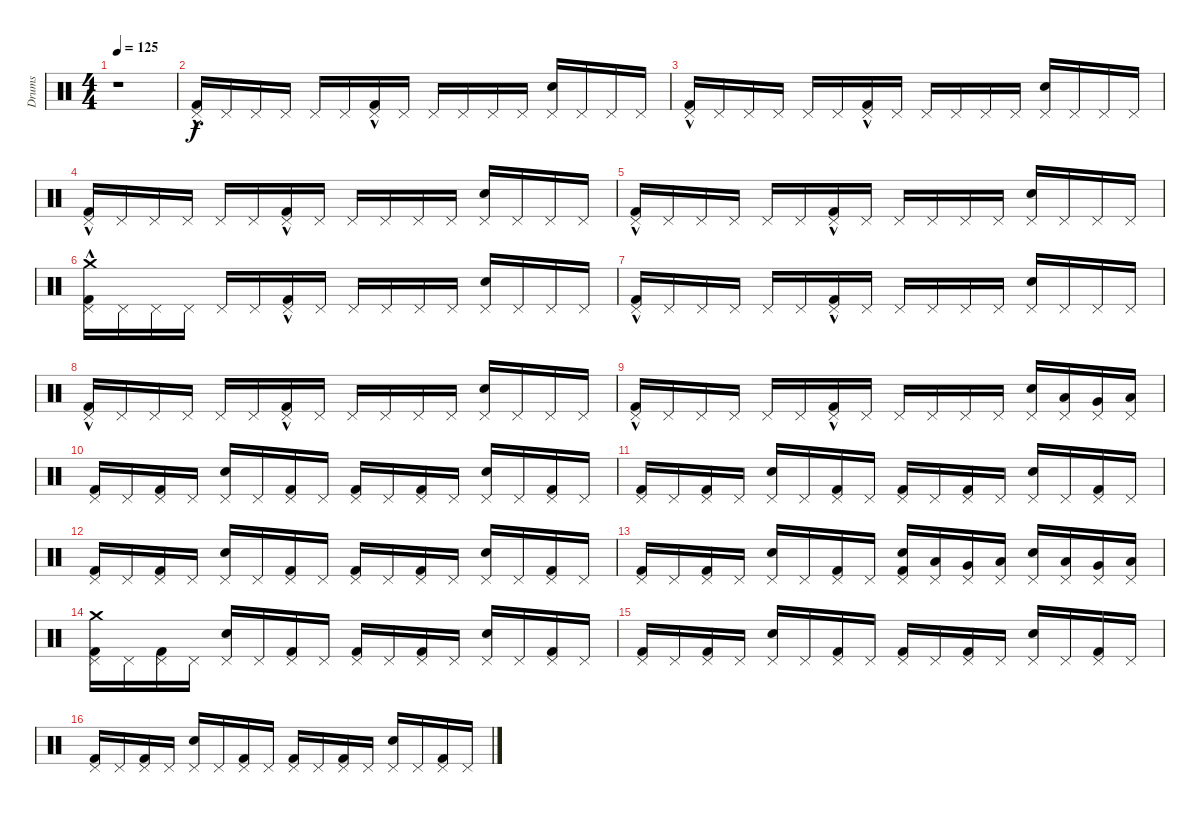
\track ("Drums" "Drums") {instrument percussion}
\staff {score}
\articulation defaults
\ts (4 4)
\tempo 125
\clef neutral
\ks c
r.1{dy f} |
("Pedal Hi-Hat (hit)" "Kick (hit) 2"{hac}).16 "Pedal Hi-Hat (hit)".16 "Pedal Hi-Hat (hit)".16 "Pedal Hi-Hat (hit)".16 "Pedal Hi-Hat (hit)".16 "Pedal Hi-Hat (hit)".16 ("Pedal Hi-Hat (hit)" "Kick (hit) 2"{hac}).16 "Pedal Hi-Hat (hit)".16 "Pedal Hi-Hat (hit)".16 "Pedal Hi-Hat (hit)".16 "Pedal Hi-Hat (hit)".16 "Pedal Hi-Hat (hit)".16 ("Pedal Hi-Hat (hit)" "Snare (hit) 2").16 "Pedal Hi-Hat (hit)".16 "Pedal Hi-Hat (hit)".16 "Pedal Hi-Hat (hit)".16 |
("Pedal Hi-Hat (hit)" "Kick (hit) 2"{hac}).16 "Pedal Hi-Hat (hit)".16 "Pedal Hi-Hat (hit)".16 "Pedal Hi-Hat (hit)".16 "Pedal Hi-Hat (hit)".16 "Pedal Hi-Hat (hit)".16 ("Pedal Hi-Hat (hit)" "Kick (hit) 2"{hac}).16 "Pedal Hi-Hat (hit)".16 "Pedal Hi-Hat (hit)".16 "Pedal Hi-Hat (hit)".16 "Pedal Hi-Hat (hit)".16 "Pedal Hi-Hat (hit)".16 ("Pedal Hi-Hat (hit)" "Snare (hit) 2").16 "Pedal Hi-Hat (hit)".16 "Pedal Hi-Hat (hit)".16 "Pedal Hi-Hat (hit)".16 |
("Pedal Hi-Hat (hit)" "Kick (hit) 2"{hac}).16 "Pedal Hi-Hat (hit)".16 "Pedal Hi-Hat (hit)".16 "Pedal Hi-Hat (hit)".16 "Pedal Hi-Hat (hit)".16 "Pedal Hi-Hat (hit)".16 ("Pedal Hi-Hat (hit)" "Kick (hit) 2"{hac}).16 "Pedal Hi-Hat (hit)".16 "Pedal Hi-Hat (hit)".16 "Pedal Hi-Hat (hit)".16 "Pedal Hi-Hat (hit)".16 "Pedal Hi-Hat (hit)".16 ("Pedal Hi-Hat (hit)" "Snare (hit) 2").16 "Pedal Hi-Hat (hit)".16 "Pedal Hi-Hat (hit)".16 "Pedal Hi-Hat (hit)".16 |
("Pedal Hi-Hat (hit)" "Kick (hit) 2"{hac}).16 "Pedal Hi-Hat (hit)".16 "Pedal Hi-Hat (hit)".16 "Pedal Hi-Hat (hit)".16 "Pedal Hi-Hat (hit)".16 "Pedal Hi-Hat (hit)".16 ("Pedal Hi-Hat (hit)" "Kick (hit) 2"{hac}).16 "Pedal Hi-Hat (hit)".16 "Pedal Hi-Hat (hit)".16 "Pedal Hi-Hat (hit)".16 "Pedal Hi-Hat (hit)".16 "Pedal Hi-Hat (hit)".16 ("Pedal Hi-Hat (hit)" "Snare (hit) 2").16 "Pedal Hi-Hat (hit)".16 "Pedal Hi-Hat (hit)".16 "Pedal Hi-Hat (hit)".16 |
("Crash medium (hit)"{hac} "Pedal Hi-Hat (hit)" "Kick (hit) 2"{hac}).16 "Pedal Hi-Hat (hit)".16 "Pedal Hi-Hat (hit)".16 "Pedal Hi-Hat (hit)".16 "Pedal Hi-Hat (hit)".16 "Pedal Hi-Hat (hit)".16 ("Pedal Hi-Hat (hit)" "Kick (hit) 2"{hac}).16 "Pedal Hi-Hat (hit)".16 "Pedal Hi-Hat (hit)".16 "Pedal Hi-Hat (hit)".16 "Pedal Hi-Hat (hit)".16 "Pedal Hi-Hat (hit)".16 ("Pedal Hi-Hat (hit)" "Snare (hit) 2").16 "Pedal Hi-Hat (hit)".16 "Pedal Hi-Hat (hit)".16 "Pedal Hi-Hat (hit)".16 |
("Pedal Hi-Hat (hit)" "Kick (hit) 2"{hac}).16 "Pedal Hi-Hat (hit)".16 "Pedal Hi-Hat (hit)".16 "Pedal Hi-Hat (hit)".16 "Pedal Hi-Hat (hit)".16 "Pedal Hi-Hat (hit)".16 ("Pedal Hi-Hat (hit)" "Kick (hit) 2"{hac}).16 "Pedal Hi-Hat (hit)".16 "Pedal Hi-Hat (hit)".16 "Pedal Hi-Hat (hit)".16 "Pedal Hi-Hat (hit)".16 "Pedal Hi-Hat (hit)".16 ("Pedal Hi-Hat (hit)" "Snare (hit) 2").16 "Pedal Hi-Hat (hit)".16 "Pedal Hi-Hat (hit)".16 "Pedal Hi-Hat (hit)".16 |
("Pedal Hi-Hat (hit)" "Kick (hit) 2"{hac}).16 "Pedal Hi-Hat (hit)".16 "Pedal Hi-Hat (hit)".16 "Pedal Hi-Hat (hit)".16 "Pedal Hi-Hat (hit)".16 "Pedal Hi-Hat (hit)".16 ("Pedal Hi-Hat (hit)" "Kick (hit) 2"{hac}).16 "Pedal Hi-Hat (hit)".16 "Pedal Hi-Hat (hit)".16 "Pedal Hi-Hat (hit)".16 "Pedal Hi-Hat (hit)".16 "Pedal Hi-Hat (hit)".16 ("Pedal Hi-Hat (hit)" "Snare (hit) 2").16 "Pedal Hi-Hat (hit)".16 "Pedal Hi-Hat (hit)".16 "Pedal Hi-Hat (hit)".16 |
("Pedal Hi-Hat (hit)" "Kick (hit) 2"{hac}).16 "Pedal Hi-Hat (hit)".16 "Pedal Hi-Hat (hit)".16 "Pedal Hi-Hat (hit)".16 "Pedal Hi-Hat (hit)".16 "Pedal Hi-Hat (hit)".16 ("Pedal Hi-Hat (hit)" "Kick (hit) 2"{hac}).16 "Pedal Hi-Hat (hit)".16 "Pedal Hi-Hat (hit)".16 "Pedal Hi-Hat (hit)".16 "Pedal Hi-Hat (hit)".16 "Pedal Hi-Hat (hit)".16 ("Snare (hit) 2" "Pedal Hi-Hat (hit)").16 ("Low Tom (hit)" "Pedal Hi-Hat (hit)").16 ("Very Low Tom (hit)" "Pedal Hi-Hat (hit)").16 ("Low Floor Tom (hit)" "Pedal Hi-Hat (hit)").16 |
("Kick (hit) 2" "Pedal Hi-Hat (hit)").16 "Pedal Hi-Hat (hit)".16 ("Kick (hit) 2" "Pedal Hi-Hat (hit)").16 "Pedal Hi-Hat (hit)".16 ("Snare (hit) 2" "Pedal Hi-Hat (hit)").16 "Pedal Hi-Hat (hit)".16 ("Kick (hit) 2" "Pedal Hi-Hat (hit)").16 "Pedal Hi-Hat (hit)".16 ("Kick (hit) 2" "Pedal Hi-Hat (hit)").16 "Pedal Hi-Hat (hit)".16 ("Kick (hit) 2" "Pedal Hi-Hat (hit)").16 "Pedal Hi-Hat (hit)".16 ("Snare (hit) 2" "Pedal Hi-Hat (hit)").16 "Pedal Hi-Hat (hit)".16 ("Kick (hit) 2" "Pedal Hi-Hat (hit)").16 "Pedal Hi-Hat (hit)".16 |
("Kick (hit) 2" "Pedal Hi-Hat (hit)").16 "Pedal Hi-Hat (hit)".16 ("Kick (hit) 2" "Pedal Hi-Hat (hit)").16 "Pedal Hi-Hat (hit)".16 ("Snare (hit) 2" "Pedal Hi-Hat (hit)").16 "Pedal Hi-Hat (hit)".16 ("Kick (hit) 2" "Pedal Hi-Hat (hit)").16 "Pedal Hi-Hat (hit)".16 ("Kick (hit) 2" "Pedal Hi-Hat (hit)").16 "Pedal Hi-Hat (hit)".16 ("Kick (hit) 2" "Pedal Hi-Hat (hit)").16 "Pedal Hi-Hat (hit)".16 ("Snare (hit) 2" "Pedal Hi-Hat (hit)").16 "Pedal Hi-Hat (hit)".16 ("Kick (hit) 2" "Pedal Hi-Hat (hit)").16 "Pedal Hi-Hat (hit)".16 |
("Kick (hit) 2" "Pedal Hi-Hat (hit)").16 "Pedal Hi-Hat (hit)".16 ("Kick (hit) 2" "Pedal Hi-Hat (hit)").16 "Pedal Hi-Hat (hit)".16 ("Snare (hit) 2" "Pedal Hi-Hat (hit)").16 "Pedal Hi-Hat (hit)".16 ("Kick (hit) 2" "Pedal Hi-Hat (hit)").16 "Pedal Hi-Hat (hit)".16 ("Kick (hit) 2" "Pedal Hi-Hat (hit)").16 "Pedal Hi-Hat (hit)".16 ("Kick (hit) 2" "Pedal Hi-Hat (hit)").16 "Pedal Hi-Hat (hit)".16 ("Snare (hit) 2" "Pedal Hi-Hat (hit)").16 "Pedal Hi-Hat (hit)".16 ("Kick (hit) 2" "Pedal Hi-Hat (hit)").16 "Pedal Hi-Hat (hit)".16 |
("Pedal Hi-Hat (hit)" "Kick (hit) 2").16 "Pedal Hi-Hat (hit)".16 ("Pedal Hi-Hat (hit)" "Kick (hit) 2").16 "Pedal Hi-Hat (hit)".16 ("Pedal Hi-Hat (hit)" "Snare (hit) 2").16 "Pedal Hi-Hat (hit)".16 ("Pedal Hi-Hat (hit)" "Kick (hit) 2").16 "Pedal Hi-Hat (hit)".16 ("Pedal Hi-Hat (hit)" "Snare (hit) 2" "Kick (hit) 2").16 ("Pedal Hi-Hat (hit)" "Low Tom (hit)").16 ("Pedal Hi-Hat (hit)" "Very Low Tom (hit)").16 ("Pedal Hi-Hat (hit)" "Low Floor Tom (hit)").16 ("Pedal Hi-Hat (hit)" "Snare (hit) 2").16 ("Pedal Hi-Hat (hit)" "Low Tom (hit)").16 ("Pedal Hi-Hat (hit)" "Very Low Tom (hit)").16 ("Pedal Hi-Hat (hit)" "Low Floor Tom (hit)").16 |
("Pedal Hi-Hat (hit)" "Crash medium (hit)" "Kick (hit) 2").16 "Pedal Hi-Hat (hit)".16 ("Pedal Hi-Hat (hit)" "Kick (hit) 2").16 "Pedal Hi-Hat (hit)".16 ("Pedal Hi-Hat (hit)" "Snare (hit) 2").16 "Pedal Hi-Hat (hit)".16 ("Pedal Hi-Hat (hit)" "Kick (hit) 2").16 "Pedal Hi-Hat (hit)".16 ("Pedal Hi-Hat (hit)" "Kick (hit) 2").16 "Pedal Hi-Hat (hit)".16 ("Pedal Hi-Hat (hit)" "Kick (hit) 2").16 "Pedal Hi-Hat (hit)".16 ("Pedal Hi-Hat (hit)" "Snare (hit) 2").16 "Pedal Hi-Hat (hit)".16 ("Pedal Hi-Hat (hit)" "Kick (hit) 2").16 "Pedal Hi-Hat (hit)".16 |
("Kick (hit) 2" "Pedal Hi-Hat (hit)").16 "Pedal Hi-Hat (hit)".16 ("Kick (hit) 2" "Pedal Hi-Hat (hit)").16 "Pedal Hi-Hat (hit)".16 ("Snare (hit) 2" "Pedal Hi-Hat (hit)").16 "Pedal Hi-Hat (hit)".16 ("Kick (hit) 2" "Pedal Hi-Hat (hit)").16 "Pedal Hi-Hat (hit)".16 ("Kick (hit) 2" "Pedal Hi-Hat (hit)").16 "Pedal Hi-Hat (hit)".16 ("Kick (hit) 2" "Pedal Hi-Hat (hit)").16 "Pedal Hi-Hat (hit)".16 ("Snare (hit) 2" "Pedal Hi-Hat (hit)").16 "Pedal Hi-Hat (hit)".16 ("Kick (hit) 2" "Pedal Hi-Hat (hit)").16 "Pedal Hi-Hat (hit)".16 |
("Kick (hit) 2" "Pedal Hi-Hat (hit)").16 "Pedal Hi-Hat (hit)".16 ("Kick (hit) 2" "Pedal Hi-Hat (hit)").16 "Pedal Hi-Hat (hit)".16 ("Snare (hit) 2" "Pedal Hi-Hat (hit)").16 "Pedal Hi-Hat (hit)".16 ("Kick (hit) 2" "Pedal Hi-Hat (hit)").16 "Pedal Hi-Hat (hit)".16 ("Kick (hit) 2" "Pedal Hi-Hat (hit)").16 "Pedal Hi-Hat (hit)".16 ("Kick (hit) 2" "Pedal Hi-Hat (hit)").16 "Pedal Hi-Hat (hit)".16 ("Snare (hit) 2" "Pedal Hi-Hat (hit)").16 "Pedal Hi-Hat (hit)".16 ("Kick (hit) 2" "Pedal Hi-Hat (hit)").16 "Pedal Hi-Hat (hit)".16
